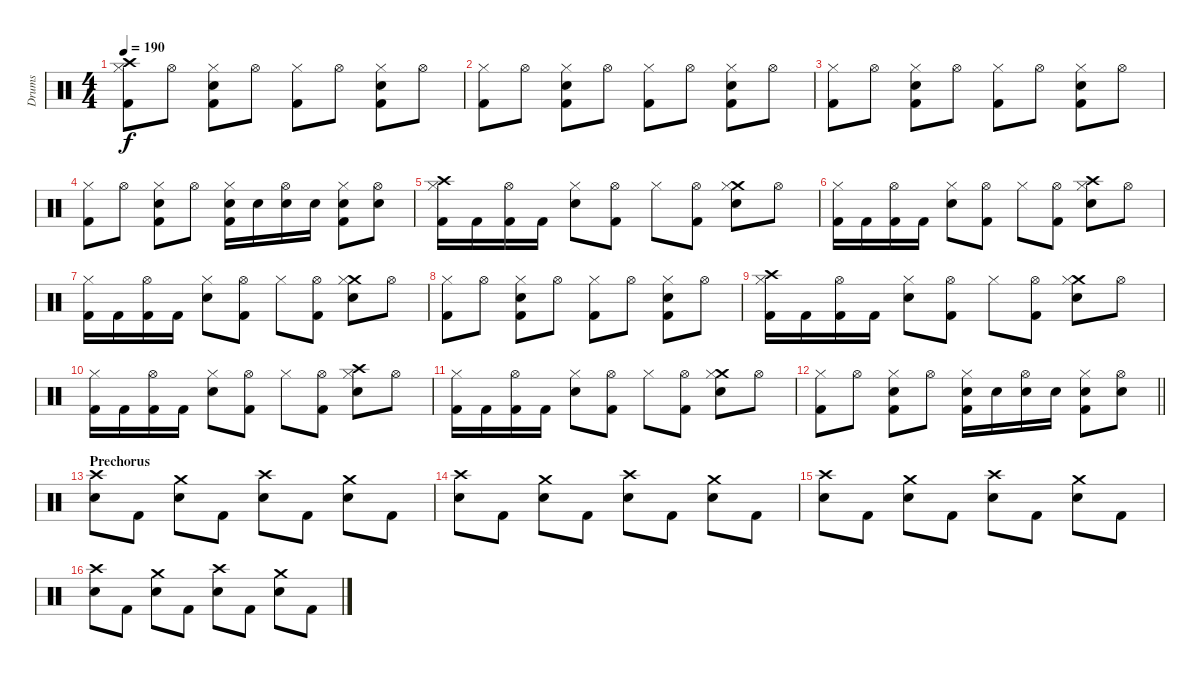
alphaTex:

\track ("Drums" "Drums") {instrument percussion}
\staff {score}
\articulation defaults
\ts (4 4)
\tempo 190
\clef neutral
\ks c
("Crash high (hit)" "Hi-Hat (closed)" "Kick (hit) 2").8{dy f} "Hi-Hat (open)".8 ("Hi-Hat (closed)" "Snare (hit) 2" "Kick (hit) 2").8 "Hi-Hat (open)".8 ("Hi-Hat (closed)" "Kick (hit) 2").8 "Hi-Hat (open)".8 ("Hi-Hat (closed)" "Snare (hit) 2" "Kick (hit) 2").8 "Hi-Hat (open)".8 |
("Hi-Hat (closed)" "Kick (hit) 2").8 "Hi-Hat (open)".8 ("Hi-Hat (closed)" "Snare (hit) 2" "Kick (hit) 2").8 "Hi-Hat (open)".8 ("Hi-Hat (closed)" "Kick (hit) 2").8 "Hi-Hat (open)".8 ("Hi-Hat (closed)" "Snare (hit) 2" "Kick (hit) 2").8 "Hi-Hat (open)".8 |
("Hi-Hat (closed)" "Kick (hit) 2").8 "Hi-Hat (open)".8 ("Hi-Hat (closed)" "Snare (hit) 2" "Kick (hit) 2").8 "Hi-Hat (open)".8 ("Hi-Hat (closed)" "Kick (hit) 2").8 "Hi-Hat (open)".8 ("Hi-Hat (closed)" "Snare (hit) 2" "Kick (hit) 2").8 "Hi-Hat (open)".8 |
("Hi-Hat (closed)" "Kick (hit) 2").8 "Hi-Hat (open)".8 ("Hi-Hat (closed)" "Snare (hit) 2" "Kick (hit) 2").8 "Hi-Hat (open)".8 ("Hi-Hat (closed)" "Snare (hit) 2" "Kick (hit) 2").16 "Snare (hit) 2".16 ("Hi-Hat (open)" "Snare (hit) 2").16 "Snare (hit) 2".16 ("Hi-Hat (closed)" "Snare (hit) 2" "Kick (hit) 2").8 ("Hi-Hat (open)" "Snare (hit) 2").8 |
("Crash high (hit)" "Hi-Hat (closed)" "Kick (hit) 2").16 "Kick (hit) 2".16 ("Hi-Hat (open)" "Kick (hit) 2").16 "Kick (hit) 2".16 ("Hi-Hat (closed)" "Snare (hit) 2").8 ("Hi-Hat (open)" "Kick (hit) 2").8 "Hi-Hat (closed)".8 ("Hi-Hat (open)" "Kick (hit) 2").8 ("Crash medium (hit)" "Hi-Hat (closed)" "Snare (hit) 2").8 "Hi-Hat (open)".8 |
("Hi-Hat (closed)" "Kick (hit) 2").16 "Kick (hit) 2".16 ("Hi-Hat (open)" "Kick (hit) 2").16 "Kick (hit) 2".16 ("Hi-Hat (closed)" "Snare (hit) 2").8 ("Hi-Hat (open)" "Kick (hit) 2").8 "Hi-Hat (closed)".8 ("Hi-Hat (open)" "Kick (hit) 2").8 ("Crash high (hit)" "Hi-Hat (closed)" "Snare (hit) 2").8 "Hi-Hat (open)".8 |
("Hi-Hat (closed)" "Kick (hit) 2").16 "Kick (hit) 2".16 ("Hi-Hat (open)" "Kick (hit) 2").16 "Kick (hit) 2".16 ("Hi-Hat (closed)" "Snare (hit) 2").8 ("Hi-Hat (open)" "Kick (hit) 2").8 "Hi-Hat (closed)".8 ("Hi-Hat (open)" "Kick (hit) 2").8 ("Crash medium (hit)" "Hi-Hat (closed)" "Snare (hit) 2").8 "Hi-Hat (open)".8 |
("Hi-Hat (closed)" "Kick (hit) 2").8 "Hi-Hat (open)".8 ("Hi-Hat (closed)" "Snare (hit) 2" "Kick (hit) 2").8 "Hi-Hat (open)".8 ("Hi-Hat (closed)" "Kick (hit) 2").8 "Hi-Hat (open)".8 ("Hi-Hat (closed)" "Snare (hit) 2" "Kick (hit) 2").8 "Hi-Hat (open)".8 |
("Crash high (hit)" "Hi-Hat (closed)" "Kick (hit) 2").16 "Kick (hit) 2".16 ("Hi-Hat (open)" "Kick (hit) 2").16 "Kick (hit) 2".16 ("Hi-Hat (closed)" "Snare (hit) 2").8 ("Hi-Hat (open)" "Kick (hit) 2").8 "Hi-Hat (closed)".8 ("Hi-Hat (open)" "Kick (hit) 2").8 ("Crash medium (hit)" "Hi-Hat (closed)" "Snare (hit) 2").8 "Hi-Hat (open)".8 |
("Hi-Hat (closed)" "Kick (hit) 2").16 "Kick (hit) 2".16 ("Hi-Hat (open)" "Kick (hit) 2").16 "Kick (hit) 2".16 ("Hi-Hat (closed)" "Snare (hit) 2").8 ("Hi-Hat (open)" "Kick (hit) 2").8 "Hi-Hat (closed)".8 ("Hi-Hat (open)" "Kick (hit) 2").8 ("Crash high (hit)" "Hi-Hat (closed)" "Snare (hit) 2").8 "Hi-Hat (open)".8 |
("Hi-Hat (closed)" "Kick (hit) 2").16 "Kick (hit) 2".16 ("Hi-Hat (open)" "Kick (hit) 2").16 "Kick (hit) 2".16 ("Hi-Hat (closed)" "Snare (hit) 2").8 ("Hi-Hat (open)" "Kick (hit) 2").8 "Hi-Hat (closed)".8 ("Hi-Hat (open)" "Kick (hit) 2").8 ("Crash medium (hit)" "Hi-Hat (closed)" "Snare (hit) 2").8 "Hi-Hat (open)".8 |
\barLineRight lightlight
("Hi-Hat (closed)" "Kick (hit) 2").8 "Hi-Hat (open)".8 ("Hi-Hat (closed)" "Snare (hit) 2" "Kick (hit) 2").8 "Hi-Hat (open)".8 ("Hi-Hat (closed)" "Snare (hit) 2" "Kick (hit) 2").16 "Snare (hit) 2".16 ("Hi-Hat (open)" "Snare (hit) 2").16 "Snare (hit) 2".16 ("Hi-Hat (closed)" "Snare (hit) 2" "Kick (hit) 2").8 ("Hi-Hat (open)" "Snare (hit) 2").8 |
\section ("" "Prechorus")
("Crash high (hit)" "Snare (hit) 2").8 "Kick (hit) 2".8 ("Crash medium (hit)" "Snare (hit) 2").8 "Kick (hit) 2".8 ("Crash high (hit)" "Snare (hit) 2").8 "Kick (hit) 2".8 ("Crash medium (hit)" "Snare (hit) 2").8 "Kick (hit) 2".8 |
("Crash high (hit)" "Snare (hit) 2").8 "Kick (hit) 2".8 ("Crash medium (hit)" "Snare (hit) 2").8 "Kick (hit) 2".8 ("Crash high (hit)" "Snare (hit) 2").8 "Kick (hit) 2".8 ("Crash medium (hit)" "Snare (hit) 2").8 "Kick (hit) 2".8 |
("Crash high (hit)" "Snare (hit) 2").8 "Kick (hit) 2".8 ("Crash medium (hit)" "Snare (hit) 2").8 "Kick (hit) 2".8 ("Crash high (hit)" "Snare (hit) 2").8 "Kick (hit) 2".8 ("Crash medium (hit)" "Snare (hit) 2").8 "Kick (hit) 2".8 |
("Crash high (hit)" "Snare (hit) 2").8 "Kick (hit) 2".8 ("Crash medium (hit)" "Snare (hit) 2").8 "Kick (hit) 2".8 ("Crash high (hit)" "Snare (hit) 2").8 "Kick (hit) 2".8 ("Crash medium (hit)" "Snare (hit) 2").8 "Kick (hit) 2".8
